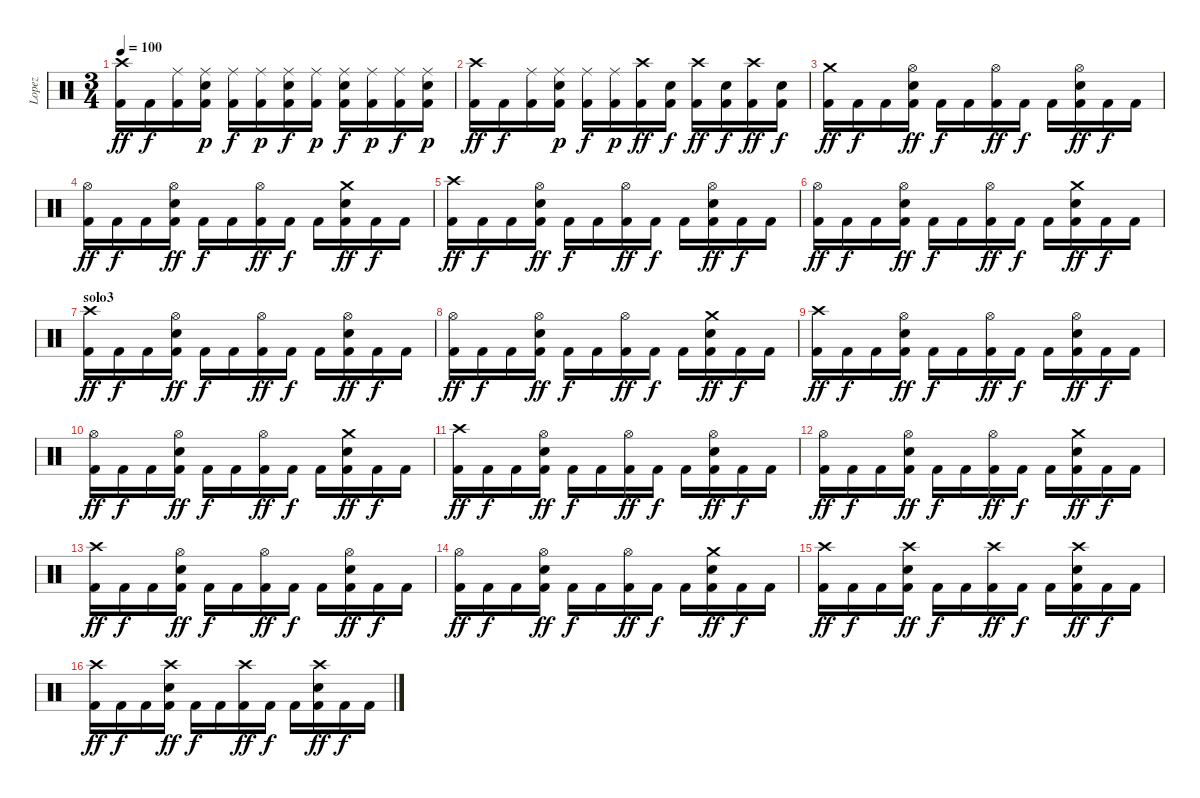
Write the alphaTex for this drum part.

\track ("Lopez" "Lopez") {instrument percussion}
\staff {score}
\articulation defaults
\ts (3 4)
\tempo 100
\clef neutral
\ks c
("Crash high (hit)" "Kick (hit) 2").16{dy ff} "Kick (hit) 2".16{dy f} ("Ride (middle)" "Kick (hit) 2").16 ("Ride (middle)" "Snare (hit) 2" "Kick (hit) 2").16{dy p} ("Ride (middle)" "Kick (hit) 2").16{dy f} ("Ride (middle)" "Kick (hit) 2").16{dy p} ("Ride (middle)" "Snare (hit) 2" "Kick (hit) 2").16{dy f} ("Ride (middle)" "Kick (hit) 2").16{dy p} ("Ride (middle)" "Snare (hit) 2" "Kick (hit) 2").16{dy f} ("Ride (middle)" "Kick (hit) 2").16{dy p} ("Ride (middle)" "Kick (hit) 2").16{dy f} ("Ride (middle)" "Snare (hit) 2" "Kick (hit) 2").16{dy p} |
("Crash high (hit)" "Kick (hit) 2").16{dy ff} "Kick (hit) 2".16{dy f} ("Ride (middle)" "Kick (hit) 2").16 ("Ride (middle)" "Snare (hit) 2" "Kick (hit) 2").16{dy p} ("Ride (middle)" "Kick (hit) 2").16{dy f} ("Ride (middle)" "Kick (hit) 2").16{dy p} ("Crash high (hit)" "Kick (hit) 2").16{dy ff} ("Snare (hit) 2" "Kick (hit) 2").16{dy f} ("Crash high (hit)" "Kick (hit) 2").16{dy ff} ("Snare (hit) 2" "Kick (hit) 2").16{dy f} ("Crash high (hit)" "Kick (hit) 2").16{dy ff} ("Snare (hit) 2" "Kick (hit) 2").16{dy f} |
("Crash medium (hit)" "Kick (hit) 2").16{dy ff} "Kick (hit) 2".16{dy f} "Kick (hit) 2".16 ("Hi-Hat (open)" "Snare (hit) 2" "Kick (hit) 2").16{dy ff} "Kick (hit) 2".16{dy f} "Kick (hit) 2".16 ("Hi-Hat (open)" "Kick (hit) 2").16{dy ff} "Kick (hit) 2".16{dy f} "Kick (hit) 2".16 ("Hi-Hat (open)" "Snare (hit) 2" "Kick (hit) 2").16{dy ff} "Kick (hit) 2".16{dy f} "Kick (hit) 2".16 |
("Hi-Hat (open)" "Kick (hit) 2").16{dy ff} "Kick (hit) 2".16{dy f} "Kick (hit) 2".16 ("Hi-Hat (open)" "Snare (hit) 2" "Kick (hit) 2").16{dy ff} "Kick (hit) 2".16{dy f} "Kick (hit) 2".16 ("Hi-Hat (open)" "Kick (hit) 2").16{dy ff} "Kick (hit) 2".16{dy f} "Kick (hit) 2".16 ("Crash medium (hit)" "Snare (hit) 2" "Kick (hit) 2").16{dy ff} "Kick (hit) 2".16{dy f} "Kick (hit) 2".16 |
("Crash high (hit)" "Kick (hit) 2").16{dy ff} "Kick (hit) 2".16{dy f} "Kick (hit) 2".16 ("Hi-Hat (open)" "Snare (hit) 2" "Kick (hit) 2").16{dy ff} "Kick (hit) 2".16{dy f} "Kick (hit) 2".16 ("Hi-Hat (open)" "Kick (hit) 2").16{dy ff} "Kick (hit) 2".16{dy f} "Kick (hit) 2".16 ("Hi-Hat (open)" "Snare (hit) 2" "Kick (hit) 2").16{dy ff} "Kick (hit) 2".16{dy f} "Kick (hit) 2".16 |
("Hi-Hat (open)" "Kick (hit) 2").16{dy ff} "Kick (hit) 2".16{dy f} "Kick (hit) 2".16 ("Hi-Hat (open)" "Snare (hit) 2" "Kick (hit) 2").16{dy ff} "Kick (hit) 2".16{dy f} "Kick (hit) 2".16 ("Hi-Hat (open)" "Kick (hit) 2").16{dy ff} "Kick (hit) 2".16{dy f} "Kick (hit) 2".16 ("Crash medium (hit)" "Snare (hit) 2" "Kick (hit) 2").16{dy ff} "Kick (hit) 2".16{dy f} "Kick (hit) 2".16 |
\section ("" "solo3")
("Crash high (hit)" "Kick (hit) 2").16{dy ff} "Kick (hit) 2".16{dy f} "Kick (hit) 2".16 ("Hi-Hat (open)" "Snare (hit) 2" "Kick (hit) 2").16{dy ff} "Kick (hit) 2".16{dy f} "Kick (hit) 2".16 ("Hi-Hat (open)" "Kick (hit) 2").16{dy ff} "Kick (hit) 2".16{dy f} "Kick (hit) 2".16 ("Hi-Hat (open)" "Snare (hit) 2" "Kick (hit) 2").16{dy ff} "Kick (hit) 2".16{dy f} "Kick (hit) 2".16 |
("Hi-Hat (open)" "Kick (hit) 2").16{dy ff} "Kick (hit) 2".16{dy f} "Kick (hit) 2".16 ("Hi-Hat (open)" "Snare (hit) 2" "Kick (hit) 2").16{dy ff} "Kick (hit) 2".16{dy f} "Kick (hit) 2".16 ("Hi-Hat (open)" "Kick (hit) 2").16{dy ff} "Kick (hit) 2".16{dy f} "Kick (hit) 2".16 ("Crash medium (hit)" "Snare (hit) 2" "Kick (hit) 2").16{dy ff} "Kick (hit) 2".16{dy f} "Kick (hit) 2".16 |
("Crash high (hit)" "Kick (hit) 2").16{dy ff} "Kick (hit) 2".16{dy f} "Kick (hit) 2".16 ("Hi-Hat (open)" "Snare (hit) 2" "Kick (hit) 2").16{dy ff} "Kick (hit) 2".16{dy f} "Kick (hit) 2".16 ("Hi-Hat (open)" "Kick (hit) 2").16{dy ff} "Kick (hit) 2".16{dy f} "Kick (hit) 2".16 ("Hi-Hat (open)" "Snare (hit) 2" "Kick (hit) 2").16{dy ff} "Kick (hit) 2".16{dy f} "Kick (hit) 2".16 |
("Hi-Hat (open)" "Kick (hit) 2").16{dy ff} "Kick (hit) 2".16{dy f} "Kick (hit) 2".16 ("Hi-Hat (open)" "Snare (hit) 2" "Kick (hit) 2").16{dy ff} "Kick (hit) 2".16{dy f} "Kick (hit) 2".16 ("Hi-Hat (open)" "Kick (hit) 2").16{dy ff} "Kick (hit) 2".16{dy f} "Kick (hit) 2".16 ("Crash medium (hit)" "Snare (hit) 2" "Kick (hit) 2").16{dy ff} "Kick (hit) 2".16{dy f} "Kick (hit) 2".16 |
("Crash high (hit)" "Kick (hit) 2").16{dy ff} "Kick (hit) 2".16{dy f} "Kick (hit) 2".16 ("Hi-Hat (open)" "Snare (hit) 2" "Kick (hit) 2").16{dy ff} "Kick (hit) 2".16{dy f} "Kick (hit) 2".16 ("Hi-Hat (open)" "Kick (hit) 2").16{dy ff} "Kick (hit) 2".16{dy f} "Kick (hit) 2".16 ("Hi-Hat (open)" "Snare (hit) 2" "Kick (hit) 2").16{dy ff} "Kick (hit) 2".16{dy f} "Kick (hit) 2".16 |
("Hi-Hat (open)" "Kick (hit) 2").16{dy ff} "Kick (hit) 2".16{dy f} "Kick (hit) 2".16 ("Hi-Hat (open)" "Snare (hit) 2" "Kick (hit) 2").16{dy ff} "Kick (hit) 2".16{dy f} "Kick (hit) 2".16 ("Hi-Hat (open)" "Kick (hit) 2").16{dy ff} "Kick (hit) 2".16{dy f} "Kick (hit) 2".16 ("Crash medium (hit)" "Snare (hit) 2" "Kick (hit) 2").16{dy ff} "Kick (hit) 2".16{dy f} "Kick (hit) 2".16 |
("Crash high (hit)" "Kick (hit) 2").16{dy ff} "Kick (hit) 2".16{dy f} "Kick (hit) 2".16 ("Hi-Hat (open)" "Snare (hit) 2" "Kick (hit) 2").16{dy ff} "Kick (hit) 2".16{dy f} "Kick (hit) 2".16 ("Hi-Hat (open)" "Kick (hit) 2").16{dy ff} "Kick (hit) 2".16{dy f} "Kick (hit) 2".16 ("Hi-Hat (open)" "Snare (hit) 2" "Kick (hit) 2").16{dy ff} "Kick (hit) 2".16{dy f} "Kick (hit) 2".16 |
("Hi-Hat (open)" "Kick (hit) 2").16{dy ff} "Kick (hit) 2".16{dy f} "Kick (hit) 2".16 ("Hi-Hat (open)" "Snare (hit) 2" "Kick (hit) 2").16{dy ff} "Kick (hit) 2".16{dy f} "Kick (hit) 2".16 ("Hi-Hat (open)" "Kick (hit) 2").16{dy ff} "Kick (hit) 2".16{dy f} "Kick (hit) 2".16 ("Crash medium (hit)" "Snare (hit) 2" "Kick (hit) 2").16{dy ff} "Kick (hit) 2".16{dy f} "Kick (hit) 2".16 |
("Crash high (hit)" "Kick (hit) 2").16{dy ff} "Kick (hit) 2".16{dy f} "Kick (hit) 2".16 ("Crash high (hit)" "Snare (hit) 2" "Kick (hit) 2").16{dy ff} "Kick (hit) 2".16{dy f} "Kick (hit) 2".16 ("Crash high (hit)" "Kick (hit) 2").16{dy ff} "Kick (hit) 2".16{dy f} "Kick (hit) 2".16 ("Crash high (hit)" "Snare (hit) 2" "Kick (hit) 2").16{dy ff} "Kick (hit) 2".16{dy f} "Kick (hit) 2".16 |
("Crash high (hit)" "Kick (hit) 2").16{dy ff} "Kick (hit) 2".16{dy f} "Kick (hit) 2".16 ("Crash high (hit)" "Snare (hit) 2" "Kick (hit) 2").16{dy ff} "Kick (hit) 2".16{dy f} "Kick (hit) 2".16 ("Crash high (hit)" "Kick (hit) 2").16{dy ff} "Kick (hit) 2".16{dy f} "Kick (hit) 2".16 ("Crash high (hit)" "Snare (hit) 2" "Kick (hit) 2").16{dy ff} "Kick (hit) 2".16{dy f} "Kick (hit) 2".16
